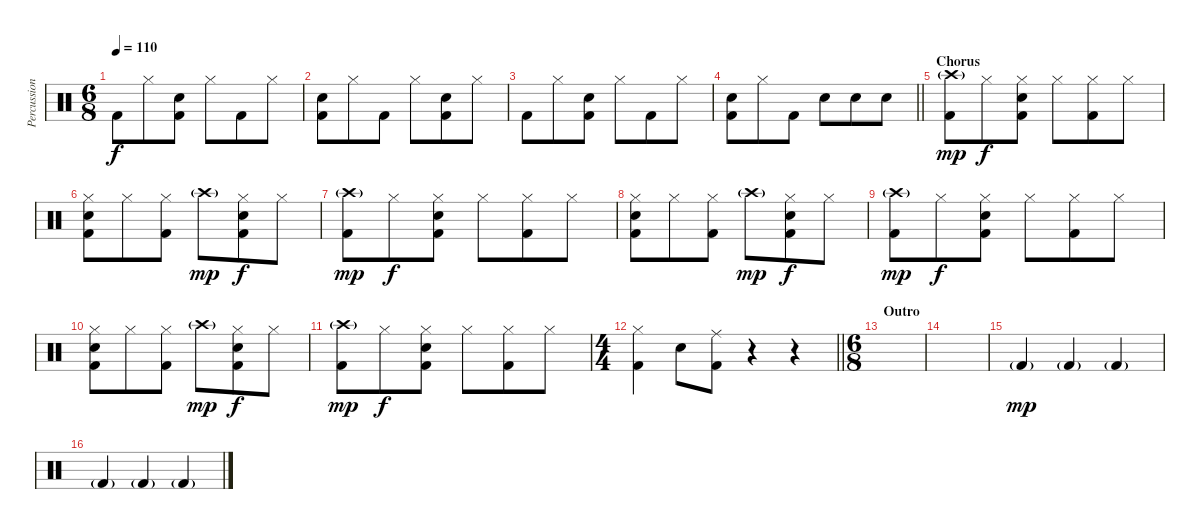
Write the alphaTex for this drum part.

\track ("Percussion" "Percussion") {instrument percussion}
\staff {score}
\articulation defaults
\ts (6 8)
\tempo 110
\clef neutral
\ks c "Kick (hit) 2".8{dy f} "Hi-Hat (closed)".8
("Snare (hit) 2" "Kick (hit) 2").8 "Hi-Hat (closed)".8 "Kick (hit) 2".8 "Hi-Hat (closed)".8 |
("Snare (hit) 2" "Kick (hit) 2").8 "Hi-Hat (closed)".8 "Kick (hit) 2".8 "Hi-Hat (closed)".8 ("Snare (hit) 2" "Kick (hit) 2").8 "Hi-Hat (closed)".8 |
"Kick (hit) 2".8 "Hi-Hat (closed)".8 ("Snare (hit) 2" "Kick (hit) 2").8 "Hi-Hat (closed)".8 "Kick (hit) 2".8 "Hi-Hat (closed)".8 |
\barLineRight lightlight
("Snare (hit) 2" "Kick (hit) 2").8 "Hi-Hat (closed)".8 "Kick (hit) 2".8 "Snare (hit) 2".8 "Snare (hit) 2".8 "Snare (hit) 2".8 |
\section ("" "Chorus")
("Crash high (hit)"{g} "Kick (hit) 2").8{dy mp} "Hi-Hat (closed)".8{dy f} ("Hi-Hat (closed)" "Snare (hit) 2" "Kick (hit) 2").8 "Hi-Hat (closed)".8 ("Hi-Hat (closed)" "Kick (hit) 2").8 "Hi-Hat (closed)".8 |
("Hi-Hat (closed)" "Snare (hit) 2" "Kick (hit) 2").8 "Hi-Hat (closed)".8 ("Hi-Hat (closed)" "Kick (hit) 2").8 "Crash high (hit)"{g}.8{dy mp} ("Hi-Hat (closed)" "Snare (hit) 2" "Kick (hit) 2").8{dy f} "Hi-Hat (closed)".8 |
("Crash high (hit)"{g} "Kick (hit) 2").8{dy mp} "Hi-Hat (closed)".8{dy f} ("Hi-Hat (closed)" "Snare (hit) 2" "Kick (hit) 2").8 "Hi-Hat (closed)".8 ("Hi-Hat (closed)" "Kick (hit) 2").8 "Hi-Hat (closed)".8 |
("Hi-Hat (closed)" "Snare (hit) 2" "Kick (hit) 2").8 "Hi-Hat (closed)".8 ("Hi-Hat (closed)" "Kick (hit) 2").8 "Crash high (hit)"{g}.8{dy mp} ("Hi-Hat (closed)" "Snare (hit) 2" "Kick (hit) 2").8{dy f} "Hi-Hat (closed)".8 |
("Crash high (hit)"{g} "Kick (hit) 2").8{dy mp} "Hi-Hat (closed)".8{dy f} ("Hi-Hat (closed)" "Snare (hit) 2" "Kick (hit) 2").8 "Hi-Hat (closed)".8 ("Hi-Hat (closed)" "Kick (hit) 2").8 "Hi-Hat (closed)".8 |
("Hi-Hat (closed)" "Snare (hit) 2" "Kick (hit) 2").8 "Hi-Hat (closed)".8 ("Hi-Hat (closed)" "Kick (hit) 2").8 "Crash high (hit)"{g}.8{dy mp} ("Hi-Hat (closed)" "Snare (hit) 2" "Kick (hit) 2").8{dy f} "Hi-Hat (closed)".8 |
("Crash high (hit)"{g} "Kick (hit) 2").8{dy mp} "Hi-Hat (closed)".8{dy f} ("Hi-Hat (closed)" "Snare (hit) 2" "Kick (hit) 2").8 "Hi-Hat (closed)".8 ("Hi-Hat (closed)" "Kick (hit) 2").8 "Hi-Hat (closed)".8 |
\ts (4 4)
\barLineRight lightlight
("Hi-Hat (closed)" "Kick (hit) 2").4 "Snare (hit) 2".8 ("Ride (middle)" "Kick (hit) 2").8 r.4 r.4 |
\ts (6 8)
\section ("" "Outro")
|
|
"Kick (hit) 2"{g}.4{dy mp} "Kick (hit) 2"{g}.4 "Kick (hit) 2"{g}.4 |
"Kick (hit) 2"{g}.4 "Kick (hit) 2"{g}.4 "Kick (hit) 2"{g}.4
